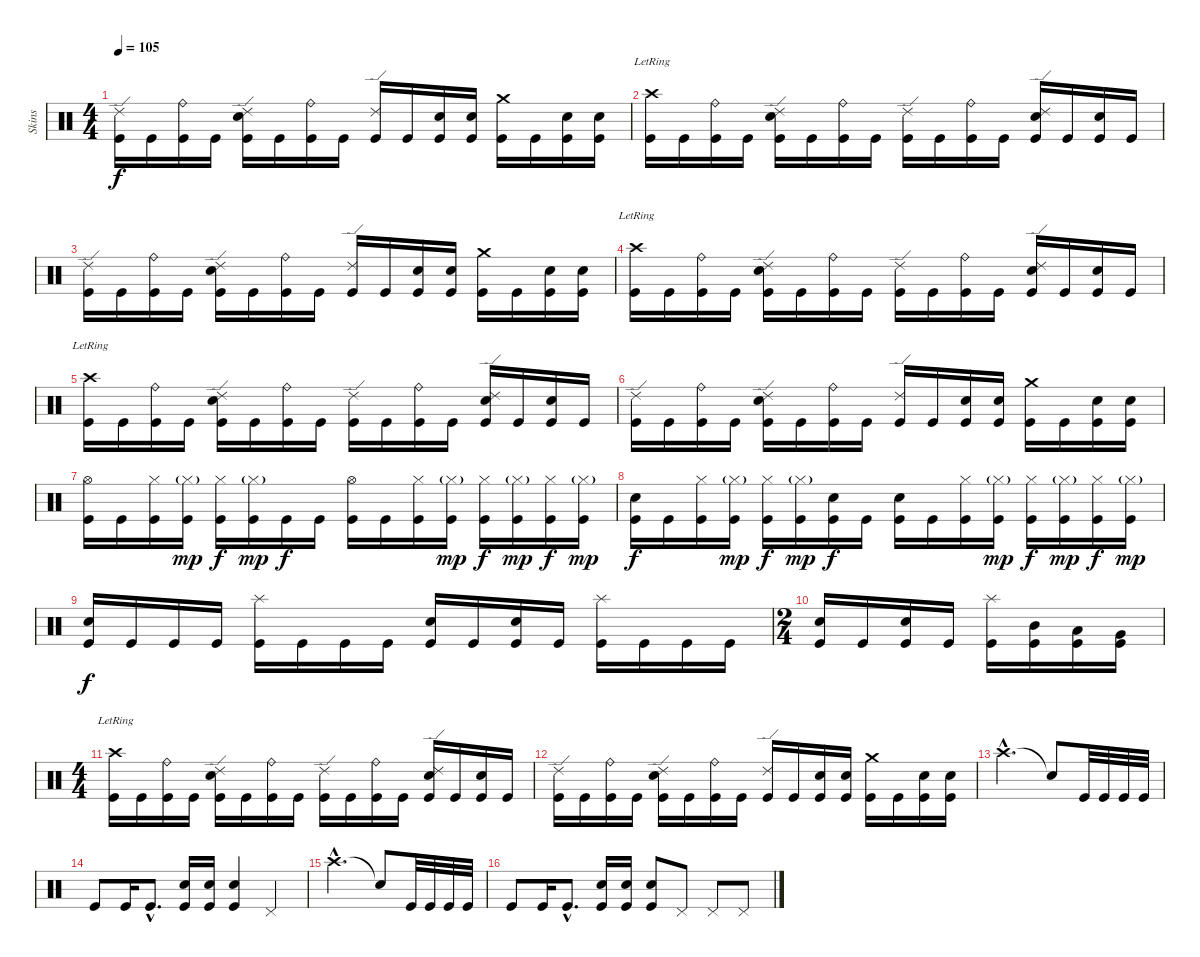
\track ("Skins" "Skins") {instrument percussion}
\staff {score}
\articulation defaults
\ts (4 4)
\tempo 105
\clef neutral
\ks c
("Ride (edge) 2" "Kick (hit)").16{dy f} "Kick (hit)".16 ("Ride (bell)" "Kick (hit)").16 "Kick (hit)".16 ("Ride (edge) 2" "Electric Snare (hit)" "Kick (hit)").16 "Kick (hit)".16 ("Ride (bell)" "Kick (hit)").16 "Kick (hit)".16 ("Ride (edge) 2" "Kick (hit)").16 "Kick (hit)".16 ("Electric Snare (hit)" "Kick (hit)").16 ("Electric Snare (hit)" "Kick (hit)").16 ("Crash medium (hit)" "Kick (hit)").16 "Kick (hit)".16 ("Electric Snare (hit)" "Kick (hit)").16 ("Electric Snare (hit)" "Kick (hit)").16 |
("Crash high (hit)"{lr} "Kick (hit)").16 "Kick (hit)".16 ("Ride (bell)" "Kick (hit)").16 "Kick (hit)".16 ("Ride (edge) 2" "Electric Snare (hit)" "Kick (hit)").16 "Kick (hit)".16 ("Ride (bell)" "Kick (hit)").16 "Kick (hit)".16 ("Ride (edge) 2" "Kick (hit)").16 "Kick (hit)".16 ("Ride (bell)" "Kick (hit)").16 "Kick (hit)".16 ("Ride (edge) 2" "Electric Snare (hit)" "Kick (hit)").16 "Kick (hit)".16 ("Electric Snare (hit)" "Kick (hit)").16 "Kick (hit)".16 |
("Ride (edge) 2" "Kick (hit)").16 "Kick (hit)".16 ("Ride (bell)" "Kick (hit)").16 "Kick (hit)".16 ("Ride (edge) 2" "Electric Snare (hit)" "Kick (hit)").16 "Kick (hit)".16 ("Ride (bell)" "Kick (hit)").16 "Kick (hit)".16 ("Ride (edge) 2" "Kick (hit)").16 "Kick (hit)".16 ("Electric Snare (hit)" "Kick (hit)").16 ("Electric Snare (hit)" "Kick (hit)").16 ("Crash medium (hit)" "Kick (hit)").16 "Kick (hit)".16 ("Electric Snare (hit)" "Kick (hit)").16 ("Electric Snare (hit)" "Kick (hit)").16 |
("Crash high (hit)"{lr} "Kick (hit)").16 "Kick (hit)".16 ("Ride (bell)" "Kick (hit)").16 "Kick (hit)".16 ("Ride (edge) 2" "Electric Snare (hit)" "Kick (hit)").16 "Kick (hit)".16 ("Ride (bell)" "Kick (hit)").16 "Kick (hit)".16 ("Ride (edge) 2" "Kick (hit)").16 "Kick (hit)".16 ("Ride (bell)" "Kick (hit)").16 "Kick (hit)".16 ("Ride (edge) 2" "Electric Snare (hit)" "Kick (hit)").16 "Kick (hit)".16 ("Electric Snare (hit)" "Kick (hit)").16 "Kick (hit)".16 |
("Crash high (hit)"{lr} "Kick (hit)").16 "Kick (hit)".16 ("Ride (bell)" "Kick (hit)").16 "Kick (hit)".16 ("Ride (edge) 2" "Electric Snare (hit)" "Kick (hit)").16 "Kick (hit)".16 ("Ride (bell)" "Kick (hit)").16 "Kick (hit)".16 ("Ride (edge) 2" "Kick (hit)").16 "Kick (hit)".16 ("Ride (bell)" "Kick (hit)").16 "Kick (hit)".16 ("Ride (edge) 2" "Electric Snare (hit)" "Kick (hit)").16 "Kick (hit)".16 ("Electric Snare (hit)" "Kick (hit)").16 "Kick (hit)".16 |
("Ride (edge) 2" "Kick (hit)").16 "Kick (hit)".16 ("Ride (bell)" "Kick (hit)").16 "Kick (hit)".16 ("Ride (edge) 2" "Electric Snare (hit)" "Kick (hit)").16 "Kick (hit)".16 ("Ride (bell)" "Kick (hit)").16 "Kick (hit)".16 ("Ride (edge) 2" "Kick (hit)").16 "Kick (hit)".16 ("Electric Snare (hit)" "Kick (hit)").16 ("Electric Snare (hit)" "Kick (hit)").16 ("Crash medium (hit)" "Kick (hit)").16 "Kick (hit)".16 ("Electric Snare (hit)" "Kick (hit)").16 ("Electric Snare (hit)" "Kick (hit)").16 |
("Hi-Hat (open)" "Kick (hit)").16 "Kick (hit)".16 ("Hi-Hat (closed)" "Kick (hit)").16 ("Hi-Hat (closed)"{g} "Kick (hit)").16{dy mp} ("Hi-Hat (closed)" "Kick (hit)").16{dy f} ("Hi-Hat (closed)"{g} "Kick (hit)").16{dy mp} "Kick (hit)".16{dy f} "Kick (hit)".16 ("Hi-Hat (open)" "Kick (hit)").16 "Kick (hit)".16 ("Hi-Hat (closed)" "Kick (hit)").16 ("Hi-Hat (closed)"{g} "Kick (hit)").16{dy mp} ("Hi-Hat (closed)" "Kick (hit)").16{dy f} ("Hi-Hat (closed)"{g} "Kick (hit)").16{dy mp} ("Hi-Hat (closed)" "Kick (hit)").16{dy f} ("Hi-Hat (closed)"{g} "Kick (hit)").16{dy mp} |
("Electric Snare (hit)" "Kick (hit)").16{dy f} "Kick (hit)".16 ("Hi-Hat (closed)" "Kick (hit)").16 ("Hi-Hat (closed)"{g} "Kick (hit)").16{dy mp} ("Hi-Hat (closed)" "Kick (hit)").16{dy f} ("Hi-Hat (closed)"{g} "Kick (hit)").16{dy mp} ("Electric Snare (hit)" "Kick (hit)").16{dy f} "Kick (hit)".16 ("Electric Snare (hit)" "Kick (hit)").16 "Kick (hit)".16 ("Hi-Hat (closed)" "Kick (hit)").16 ("Hi-Hat (closed)"{g} "Kick (hit)").16{dy mp} ("Hi-Hat (closed)" "Kick (hit)").16{dy f} ("Hi-Hat (closed)"{g} "Kick (hit)").16{dy mp} ("Hi-Hat (closed)" "Kick (hit)").16{dy f} ("Hi-Hat (closed)"{g} "Kick (hit)").16{dy mp} |
("Electric Snare (hit)" "Kick (hit)").16{dy f} "Kick (hit)".16 "Kick (hit)".16 "Kick (hit)".16 ("Splash (hit)" "Kick (hit)").16 "Kick (hit)".16 "Kick (hit)".16 "Kick (hit)".16 ("Electric Snare (hit)" "Kick (hit)").16 "Kick (hit)".16 ("Electric Snare (hit)" "Kick (hit)").16 "Kick (hit)".16 ("Splash (hit)" "Kick (hit)").16 "Kick (hit)".16 "Kick (hit)".16 "Kick (hit)".16 |
\ts (2 4)
("Electric Snare (hit)" "Kick (hit)").16 "Kick (hit)".16 ("Electric Snare (hit)" "Kick (hit)").16 "Kick (hit)".16 ("Splash (hit)" "Kick (hit)").16 ("Mid Tom (hit)" "Kick (hit)").16 ("Low Tom (hit)" "Kick (hit)").16 ("Very Low Tom (hit)" "Kick (hit)").16 |
\ts (4 4)
("Crash high (hit)"{lr} "Kick (hit)").16 "Kick (hit)".16 ("Ride (bell)" "Kick (hit)").16 "Kick (hit)".16 ("Ride (edge) 2" "Electric Snare (hit)" "Kick (hit)").16 "Kick (hit)".16 ("Ride (bell)" "Kick (hit)").16 "Kick (hit)".16 ("Ride (edge) 2" "Kick (hit)").16 "Kick (hit)".16 ("Ride (bell)" "Kick (hit)").16 "Kick (hit)".16 ("Ride (edge) 2" "Electric Snare (hit)" "Kick (hit)").16 "Kick (hit)".16 ("Electric Snare (hit)" "Kick (hit)").16 "Kick (hit)".16 |
("Ride (edge) 2" "Kick (hit)").16 "Kick (hit)".16 ("Ride (bell)" "Kick (hit)").16 "Kick (hit)".16 ("Ride (edge) 2" "Electric Snare (hit)" "Kick (hit)").16 "Kick (hit)".16 ("Ride (bell)" "Kick (hit)").16 "Kick (hit)".16 ("Ride (edge) 2" "Kick (hit)").16 "Kick (hit)".16 ("Electric Snare (hit)" "Kick (hit)").16 ("Electric Snare (hit)" "Kick (hit)").16 ("Crash medium (hit)" "Kick (hit)").16 "Kick (hit)".16 ("Electric Snare (hit)" "Kick (hit)").16 ("Electric Snare (hit)" "Kick (hit)").16 |
"Crash high (hit)"{hac}.2{d} "Snare (hit)"{t}.8 "Kick (hit)".32 "Kick (hit)".32 "Kick (hit)".32 "Kick (hit)".32 |
"Kick (hit)".8 "Kick (hit)".16 "Kick (hit)"{hac}.8{d} ("Electric Snare (hit)" "Kick (hit)").16 ("Electric Snare (hit)" "Kick (hit)").16 ("Electric Snare (hit)" "Kick (hit)").4 "Pedal Hi-Hat (hit)".4 |
"Crash high (hit)"{hac}.2{d} "Snare (hit)"{t}.8 "Kick (hit)".32 "Kick (hit)".32 "Kick (hit)".32 "Kick (hit)".32 |
"Kick (hit)".8 "Kick (hit)".16 "Kick (hit)"{hac}.8{d} ("Electric Snare (hit)" "Kick (hit)").16 ("Electric Snare (hit)" "Kick (hit)").16 ("Electric Snare (hit)" "Kick (hit)").8 "Pedal Hi-Hat (hit)".8 "Pedal Hi-Hat (hit)".8 "Pedal Hi-Hat (hit)".8
